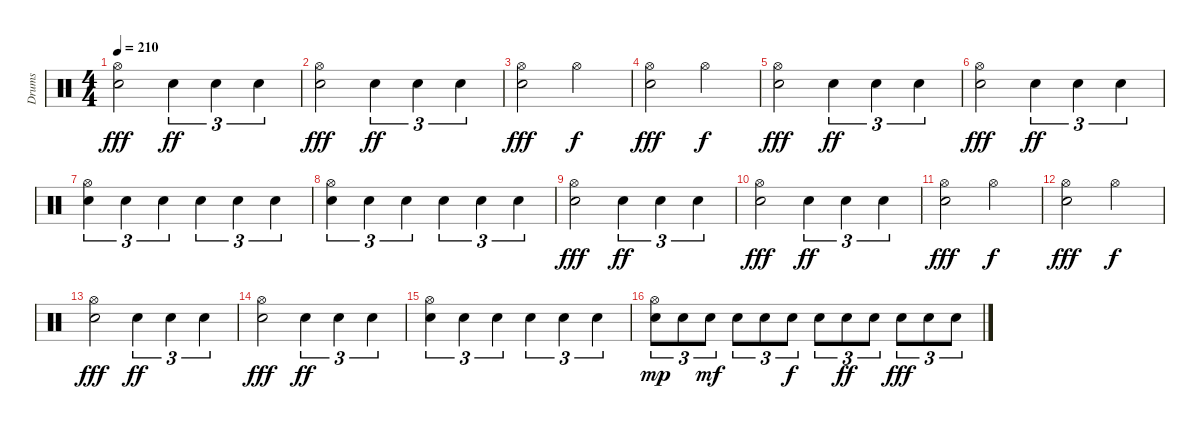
\track ("Drums" "Drums") {instrument percussion}
\staff {score}
\articulation defaults
\ts (4 4)
\tempo 210
\clef neutral
\ks c
("Electric Snare (hit)" "Hi-Hat (open)").2{dy fff} "Electric Snare (hit)".4{tu (3 2) dy ff} "Electric Snare (hit)".4{tu (3 2)} "Electric Snare (hit)".4{tu (3 2)} |
("Electric Snare (hit)" "Hi-Hat (open)").2{dy fff} "Electric Snare (hit)".4{tu (3 2) dy ff} "Electric Snare (hit)".4{tu (3 2)} "Electric Snare (hit)".4{tu (3 2)} |
("Electric Snare (hit)" "Hi-Hat (open)").2{dy fff} "Hi-Hat (open)".2{dy f} |
("Electric Snare (hit)" "Hi-Hat (open)").2{dy fff} "Hi-Hat (open)".2{dy f} |
("Electric Snare (hit)" "Hi-Hat (open)").2{dy fff} "Electric Snare (hit)".4{tu (3 2) dy ff} "Electric Snare (hit)".4{tu (3 2)} "Electric Snare (hit)".4{tu (3 2)} |
("Electric Snare (hit)" "Hi-Hat (open)").2{dy fff} "Electric Snare (hit)".4{tu (3 2) dy ff} "Electric Snare (hit)".4{tu (3 2)} "Electric Snare (hit)".4{tu (3 2)} |
("Electric Snare (hit)" "Hi-Hat (open)").4{tu (3 2)} "Electric Snare (hit)".4{tu (3 2)} "Electric Snare (hit)".4{tu (3 2)} "Electric Snare (hit)".4{tu (3 2)} "Electric Snare (hit)".4{tu (3 2)} "Electric Snare (hit)".4{tu (3 2)} |
("Electric Snare (hit)" "Hi-Hat (open)").4{tu (3 2)} "Electric Snare (hit)".4{tu (3 2)} "Electric Snare (hit)".4{tu (3 2)} "Electric Snare (hit)".4{tu (3 2)} "Electric Snare (hit)".4{tu (3 2)} "Electric Snare (hit)".4{tu (3 2)} |
("Electric Snare (hit)" "Hi-Hat (open)").2{dy fff} "Electric Snare (hit)".4{tu (3 2) dy ff} "Electric Snare (hit)".4{tu (3 2)} "Electric Snare (hit)".4{tu (3 2)} |
("Electric Snare (hit)" "Hi-Hat (open)").2{dy fff} "Electric Snare (hit)".4{tu (3 2) dy ff} "Electric Snare (hit)".4{tu (3 2)} "Electric Snare (hit)".4{tu (3 2)} |
("Electric Snare (hit)" "Hi-Hat (open)").2{dy fff} "Hi-Hat (open)".2{dy f} |
("Electric Snare (hit)" "Hi-Hat (open)").2{dy fff} "Hi-Hat (open)".2{dy f} |
("Electric Snare (hit)" "Hi-Hat (open)").2{dy fff} "Electric Snare (hit)".4{tu (3 2) dy ff} "Electric Snare (hit)".4{tu (3 2)} "Electric Snare (hit)".4{tu (3 2)} |
("Electric Snare (hit)" "Hi-Hat (open)").2{dy fff} "Electric Snare (hit)".4{tu (3 2) dy ff} "Electric Snare (hit)".4{tu (3 2)} "Electric Snare (hit)".4{tu (3 2)} |
("Electric Snare (hit)" "Hi-Hat (open)").4{tu (3 2)} "Electric Snare (hit)".4{tu (3 2)} "Electric Snare (hit)".4{tu (3 2)} "Electric Snare (hit)".4{tu (3 2)} "Electric Snare (hit)".4{tu (3 2)} "Electric Snare (hit)".4{tu (3 2)} |
("Electric Snare (hit)" "Hi-Hat (open)").8{tu (3 2) dy mp} "Electric Snare (hit)".8{tu (3 2)} "Electric Snare (hit)".8{tu (3 2) dy mf} "Electric Snare (hit)".8{tu (3 2)} "Electric Snare (hit)".8{tu (3 2)} "Electric Snare (hit)".8{tu (3 2) dy f} "Electric Snare (hit)".8{tu (3 2)} "Electric Snare (hit)".8{tu (3 2) dy ff} "Electric Snare (hit)".8{tu (3 2)} "Electric Snare (hit)".8{tu (3 2) dy fff} "Electric Snare (hit)".8{tu (3 2)} "Electric Snare (hit)".8{tu (3 2)}
